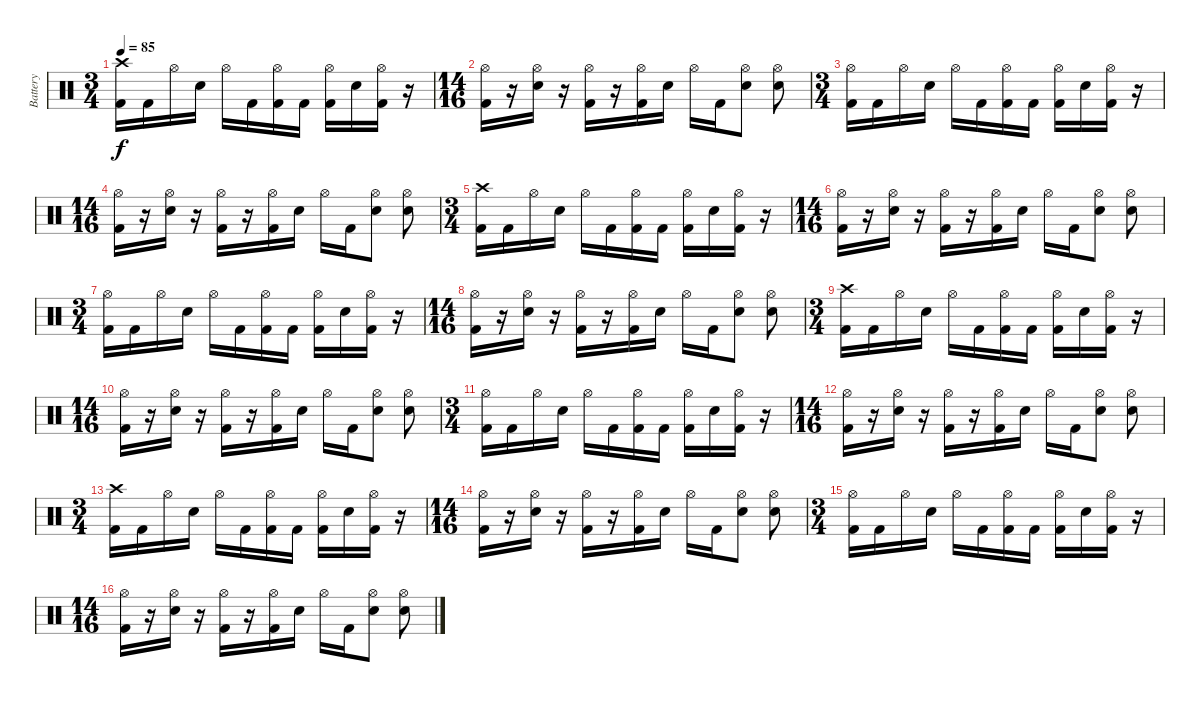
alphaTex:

\track ("Battery" "Battery") {instrument percussion}
\staff {score}
\articulation defaults
\ts (3 4)
\tempo 85
\clef neutral
\ks c
("Crash high (hit)" "Kick (hit) 2").16{dy f} "Kick (hit) 2".16 "Hi-Hat (open)".16 "Snare (hit) 2".16 "Hi-Hat (open)".16 "Kick (hit) 2".16 ("Hi-Hat (open)" "Kick (hit) 2").16 "Kick (hit) 2".16 ("Hi-Hat (open)" "Kick (hit) 2").16 "Snare (hit) 2".16 ("Hi-Hat (open)" "Kick (hit) 2").16 r.16 |
\ts (14 16)
("Hi-Hat (open)" "Kick (hit) 2").16 r.16 ("Snare (hit) 2" "Hi-Hat (open)").16 r.16 ("Hi-Hat (open)" "Kick (hit) 2").16 r.16 ("Hi-Hat (open)" "Kick (hit) 2").16 "Snare (hit) 2".16 "Hi-Hat (open)".16 "Kick (hit) 2".16 ("Snare (hit) 2" "Hi-Hat (open)").8 ("Snare (hit) 2" "Hi-Hat (open)").8 |
\ts (3 4)
("Hi-Hat (open)" "Kick (hit) 2").16 "Kick (hit) 2".16 "Hi-Hat (open)".16 "Snare (hit) 2".16 "Hi-Hat (open)".16 "Kick (hit) 2".16 ("Hi-Hat (open)" "Kick (hit) 2").16 "Kick (hit) 2".16 ("Hi-Hat (open)" "Kick (hit) 2").16 "Snare (hit) 2".16 ("Hi-Hat (open)" "Kick (hit) 2").16 r.16 |
\ts (14 16)
("Hi-Hat (open)" "Kick (hit) 2").16 r.16 ("Snare (hit) 2" "Hi-Hat (open)").16 r.16 ("Hi-Hat (open)" "Kick (hit) 2").16 r.16 ("Hi-Hat (open)" "Kick (hit) 2").16 "Snare (hit) 2".16 "Hi-Hat (open)".16 "Kick (hit) 2".16 ("Snare (hit) 2" "Hi-Hat (open)").8 ("Snare (hit) 2" "Hi-Hat (open)").8 |
\ts (3 4)
("Crash high (hit)" "Kick (hit) 2").16 "Kick (hit) 2".16 "Hi-Hat (open)".16 "Snare (hit) 2".16 "Hi-Hat (open)".16 "Kick (hit) 2".16 ("Hi-Hat (open)" "Kick (hit) 2").16 "Kick (hit) 2".16 ("Hi-Hat (open)" "Kick (hit) 2").16 "Snare (hit) 2".16 ("Hi-Hat (open)" "Kick (hit) 2").16 r.16 |
\ts (14 16)
("Hi-Hat (open)" "Kick (hit) 2").16 r.16 ("Snare (hit) 2" "Hi-Hat (open)").16 r.16 ("Hi-Hat (open)" "Kick (hit) 2").16 r.16 ("Hi-Hat (open)" "Kick (hit) 2").16 "Snare (hit) 2".16 "Hi-Hat (open)".16 "Kick (hit) 2".16 ("Snare (hit) 2" "Hi-Hat (open)").8 ("Snare (hit) 2" "Hi-Hat (open)").8 |
\ts (3 4)
("Hi-Hat (open)" "Kick (hit) 2").16 "Kick (hit) 2".16 "Hi-Hat (open)".16 "Snare (hit) 2".16 "Hi-Hat (open)".16 "Kick (hit) 2".16 ("Hi-Hat (open)" "Kick (hit) 2").16 "Kick (hit) 2".16 ("Hi-Hat (open)" "Kick (hit) 2").16 "Snare (hit) 2".16 ("Hi-Hat (open)" "Kick (hit) 2").16 r.16 |
\ts (14 16)
("Hi-Hat (open)" "Kick (hit) 2").16 r.16 ("Snare (hit) 2" "Hi-Hat (open)").16 r.16 ("Hi-Hat (open)" "Kick (hit) 2").16 r.16 ("Hi-Hat (open)" "Kick (hit) 2").16 "Snare (hit) 2".16 "Hi-Hat (open)".16 "Kick (hit) 2".16 ("Snare (hit) 2" "Hi-Hat (open)").8 ("Snare (hit) 2" "Hi-Hat (open)").8 |
\ts (3 4)
("Crash high (hit)" "Kick (hit) 2").16 "Kick (hit) 2".16 "Hi-Hat (open)".16 "Snare (hit) 2".16 "Hi-Hat (open)".16 "Kick (hit) 2".16 ("Hi-Hat (open)" "Kick (hit) 2").16 "Kick (hit) 2".16 ("Hi-Hat (open)" "Kick (hit) 2").16 "Snare (hit) 2".16 ("Hi-Hat (open)" "Kick (hit) 2").16 r.16 |
\ts (14 16)
("Hi-Hat (open)" "Kick (hit) 2").16 r.16 ("Snare (hit) 2" "Hi-Hat (open)").16 r.16 ("Hi-Hat (open)" "Kick (hit) 2").16 r.16 ("Hi-Hat (open)" "Kick (hit) 2").16 "Snare (hit) 2".16 "Hi-Hat (open)".16 "Kick (hit) 2".16 ("Snare (hit) 2" "Hi-Hat (open)").8 ("Snare (hit) 2" "Hi-Hat (open)").8 |
\ts (3 4)
("Hi-Hat (open)" "Kick (hit) 2").16 "Kick (hit) 2".16 "Hi-Hat (open)".16 "Snare (hit) 2".16 "Hi-Hat (open)".16 "Kick (hit) 2".16 ("Hi-Hat (open)" "Kick (hit) 2").16 "Kick (hit) 2".16 ("Hi-Hat (open)" "Kick (hit) 2").16 "Snare (hit) 2".16 ("Hi-Hat (open)" "Kick (hit) 2").16 r.16 |
\ts (14 16)
("Hi-Hat (open)" "Kick (hit) 2").16 r.16 ("Snare (hit) 2" "Hi-Hat (open)").16 r.16 ("Hi-Hat (open)" "Kick (hit) 2").16 r.16 ("Hi-Hat (open)" "Kick (hit) 2").16 "Snare (hit) 2".16 "Hi-Hat (open)".16 "Kick (hit) 2".16 ("Snare (hit) 2" "Hi-Hat (open)").8 ("Snare (hit) 2" "Hi-Hat (open)").8 |
\ts (3 4)
("Crash high (hit)" "Kick (hit) 2").16 "Kick (hit) 2".16 "Hi-Hat (open)".16 "Snare (hit) 2".16 "Hi-Hat (open)".16 "Kick (hit) 2".16 ("Hi-Hat (open)" "Kick (hit) 2").16 "Kick (hit) 2".16 ("Hi-Hat (open)" "Kick (hit) 2").16 "Snare (hit) 2".16 ("Hi-Hat (open)" "Kick (hit) 2").16 r.16 |
\ts (14 16)
("Hi-Hat (open)" "Kick (hit) 2").16 r.16 ("Snare (hit) 2" "Hi-Hat (open)").16 r.16 ("Hi-Hat (open)" "Kick (hit) 2").16 r.16 ("Hi-Hat (open)" "Kick (hit) 2").16 "Snare (hit) 2".16 "Hi-Hat (open)".16 "Kick (hit) 2".16 ("Snare (hit) 2" "Hi-Hat (open)").8 ("Snare (hit) 2" "Hi-Hat (open)").8 |
\ts (3 4)
("Hi-Hat (open)" "Kick (hit) 2").16 "Kick (hit) 2".16 "Hi-Hat (open)".16 "Snare (hit) 2".16 "Hi-Hat (open)".16 "Kick (hit) 2".16 ("Hi-Hat (open)" "Kick (hit) 2").16 "Kick (hit) 2".16 ("Hi-Hat (open)" "Kick (hit) 2").16 "Snare (hit) 2".16 ("Hi-Hat (open)" "Kick (hit) 2").16 r.16 |
\ts (14 16)
("Hi-Hat (open)" "Kick (hit) 2").16 r.16 ("Snare (hit) 2" "Hi-Hat (open)").16 r.16 ("Hi-Hat (open)" "Kick (hit) 2").16 r.16 ("Hi-Hat (open)" "Kick (hit) 2").16 "Snare (hit) 2".16 "Hi-Hat (open)".16 "Kick (hit) 2".16 ("Snare (hit) 2" "Hi-Hat (open)").8 ("Snare (hit) 2" "Hi-Hat (open)").8
